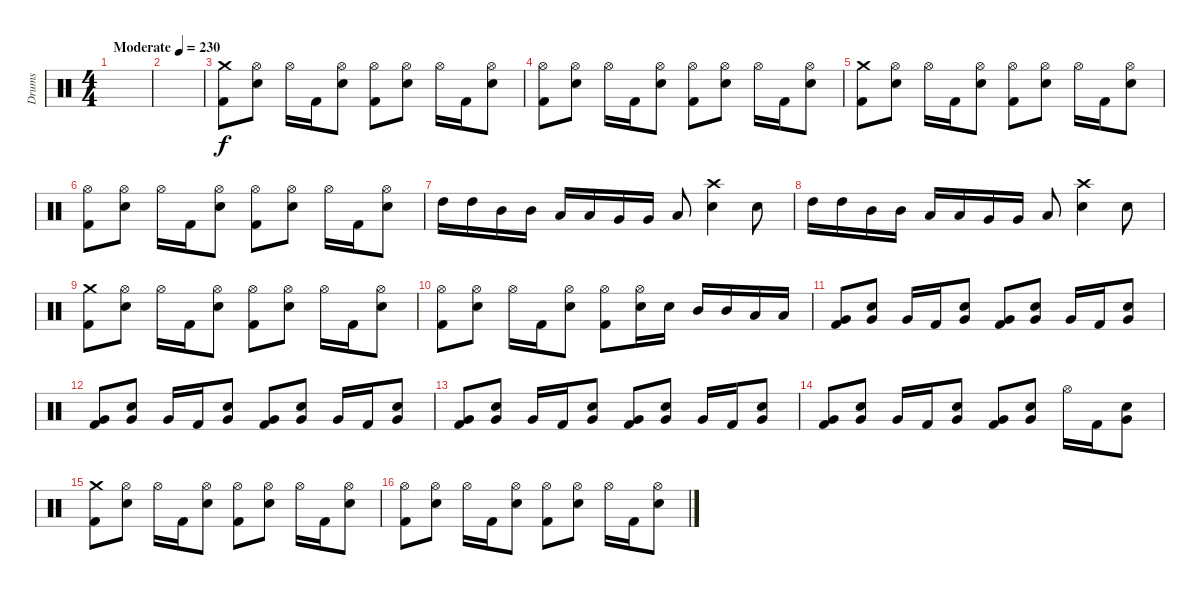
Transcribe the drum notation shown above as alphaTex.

\track ("Drums" "Drums") {instrument percussion}
\staff {score}
\articulation defaults
\ts (4 4)
\tempo (230 "Moderate")
\clef neutral
\ks c
|
|
("Kick (hit) 2" "Crash medium (hit)").8 ("Snare (hit) 2" "Hi-Hat (open)").8 "Hi-Hat (open)".16 "Kick (hit) 2".16 ("Snare (hit) 2" "Hi-Hat (open)").8 ("Kick (hit) 2" "Hi-Hat (open)").8 ("Snare (hit) 2" "Hi-Hat (open)").8 "Hi-Hat (open)".16 "Kick (hit) 2".16 ("Snare (hit) 2" "Hi-Hat (open)").8 |
("Kick (hit) 2" "Hi-Hat (open)").8 ("Snare (hit) 2" "Hi-Hat (open)").8 "Hi-Hat (open)".16 "Kick (hit) 2".16 ("Snare (hit) 2" "Hi-Hat (open)").8 ("Kick (hit) 2" "Hi-Hat (open)").8 ("Snare (hit) 2" "Hi-Hat (open)").8 "Hi-Hat (open)".16 "Kick (hit) 2".16 ("Snare (hit) 2" "Hi-Hat (open)").8 |
("Kick (hit) 2" "Crash medium (hit)").8 ("Snare (hit) 2" "Hi-Hat (open)").8 "Hi-Hat (open)".16 "Kick (hit) 2".16 ("Snare (hit) 2" "Hi-Hat (open)").8 ("Kick (hit) 2" "Hi-Hat (open)").8 ("Snare (hit) 2" "Hi-Hat (open)").8 "Hi-Hat (open)".16 "Kick (hit) 2".16 ("Snare (hit) 2" "Hi-Hat (open)").8 |
("Kick (hit) 2" "Hi-Hat (open)").8 ("Snare (hit) 2" "Hi-Hat (open)").8 "Hi-Hat (open)".16 "Kick (hit) 2".16 ("Snare (hit) 2" "Hi-Hat (open)").8 ("Kick (hit) 2" "Hi-Hat (open)").8 ("Snare (hit) 2" "Hi-Hat (open)").8 "Hi-Hat (open)".16 "Kick (hit) 2".16 ("Snare (hit) 2" "Hi-Hat (open)").8 |
"High Tom (hit)".16 "High Tom (hit)".16 "Mid Tom (hit)".16 "Mid Tom (hit)".16 "Low Tom (hit)".16 "Low Tom (hit)".16 "Very Low Tom (hit)".16 "Very Low Tom (hit)".16 "Low Floor Tom (hit)".8 ("Snare (hit) 2" "Crash high (hit)").4 "Snare (hit) 2".8 |
"High Tom (hit)".16 "High Tom (hit)".16 "Mid Tom (hit)".16 "Mid Tom (hit)".16 "Low Tom (hit)".16 "Low Tom (hit)".16 "Very Low Tom (hit)".16 "Very Low Tom (hit)".16 "Low Floor Tom (hit)".8 ("Snare (hit) 2" "Crash high (hit)").4 "Snare (hit) 2".8 |
("Kick (hit) 2" "Crash medium (hit)").8 ("Snare (hit) 2" "Hi-Hat (open)").8 "Hi-Hat (open)".16 "Kick (hit) 2".16 ("Snare (hit) 2" "Hi-Hat (open)").8 ("Kick (hit) 2" "Hi-Hat (open)").8 ("Snare (hit) 2" "Hi-Hat (open)").8 "Hi-Hat (open)".16 "Kick (hit) 2".16 ("Snare (hit) 2" "Hi-Hat (open)").8 |
("Kick (hit) 2" "Hi-Hat (open)").8 ("Snare (hit) 2" "Hi-Hat (open)").8 "Hi-Hat (open)".16 "Kick (hit) 2".16 ("Snare (hit) 2" "Hi-Hat (open)").8 ("Kick (hit) 2" "Hi-Hat (open)").8 ("Snare (hit) 2" "Hi-Hat (open)").16 "Snare (hit) 2".16 "Mid Tom (hit)".16 "Mid Tom (hit)".16 "Low Tom (hit)".16 "Low Tom (hit)".16 |
("Kick (hit) 2" "Very Low Tom (hit)").8 ("Snare (hit) 2" "Very Low Tom (hit)").8 "Very Low Tom (hit)".16 "Kick (hit) 2".16 ("Snare (hit) 2" "Very Low Tom (hit)").8 ("Kick (hit) 2" "Very Low Tom (hit)").8 ("Snare (hit) 2" "Very Low Tom (hit)").8 "Very Low Tom (hit)".16 "Kick (hit) 2".16 ("Snare (hit) 2" "Very Low Tom (hit)").8 |
("Kick (hit) 2" "Very Low Tom (hit)").8 ("Snare (hit) 2" "Very Low Tom (hit)").8 "Very Low Tom (hit)".16 "Kick (hit) 2".16 ("Snare (hit) 2" "Very Low Tom (hit)").8 ("Kick (hit) 2" "Very Low Tom (hit)").8 ("Snare (hit) 2" "Very Low Tom (hit)").8 "Very Low Tom (hit)".16 "Kick (hit) 2".16 ("Snare (hit) 2" "Very Low Tom (hit)").8 |
("Kick (hit) 2" "Very Low Tom (hit)").8 ("Snare (hit) 2" "Very Low Tom (hit)").8 "Very Low Tom (hit)".16 "Kick (hit) 2".16 ("Snare (hit) 2" "Very Low Tom (hit)").8 ("Kick (hit) 2" "Very Low Tom (hit)").8 ("Snare (hit) 2" "Very Low Tom (hit)").8 "Very Low Tom (hit)".16 "Kick (hit) 2".16 ("Snare (hit) 2" "Very Low Tom (hit)").8 |
("Kick (hit) 2" "Very Low Tom (hit)").8 ("Snare (hit) 2" "Very Low Tom (hit)").8 "Very Low Tom (hit)".16 "Kick (hit) 2".16 ("Snare (hit) 2" "Very Low Tom (hit)").8 ("Kick (hit) 2" "Very Low Tom (hit)").8 ("Snare (hit) 2" "Very Low Tom (hit)").8 "Hi-Hat (open)".16 "Kick (hit) 2".16 ("Snare (hit) 2" "Very Low Tom (hit)").8 |
("Kick (hit) 2" "Crash medium (hit)").8 ("Snare (hit) 2" "Hi-Hat (open)").8 "Hi-Hat (open)".16 "Kick (hit) 2".16 ("Snare (hit) 2" "Hi-Hat (open)").8 ("Kick (hit) 2" "Hi-Hat (open)").8 ("Snare (hit) 2" "Hi-Hat (open)").8 "Hi-Hat (open)".16 "Kick (hit) 2".16 ("Snare (hit) 2" "Hi-Hat (open)").8 |
("Kick (hit) 2" "Hi-Hat (open)").8 ("Snare (hit) 2" "Hi-Hat (open)").8 "Hi-Hat (open)".16 "Kick (hit) 2".16 ("Snare (hit) 2" "Hi-Hat (open)").8 ("Kick (hit) 2" "Hi-Hat (open)").8 ("Snare (hit) 2" "Hi-Hat (open)").8 "Hi-Hat (open)".16 "Kick (hit) 2".16 ("Snare (hit) 2" "Hi-Hat (open)").8
